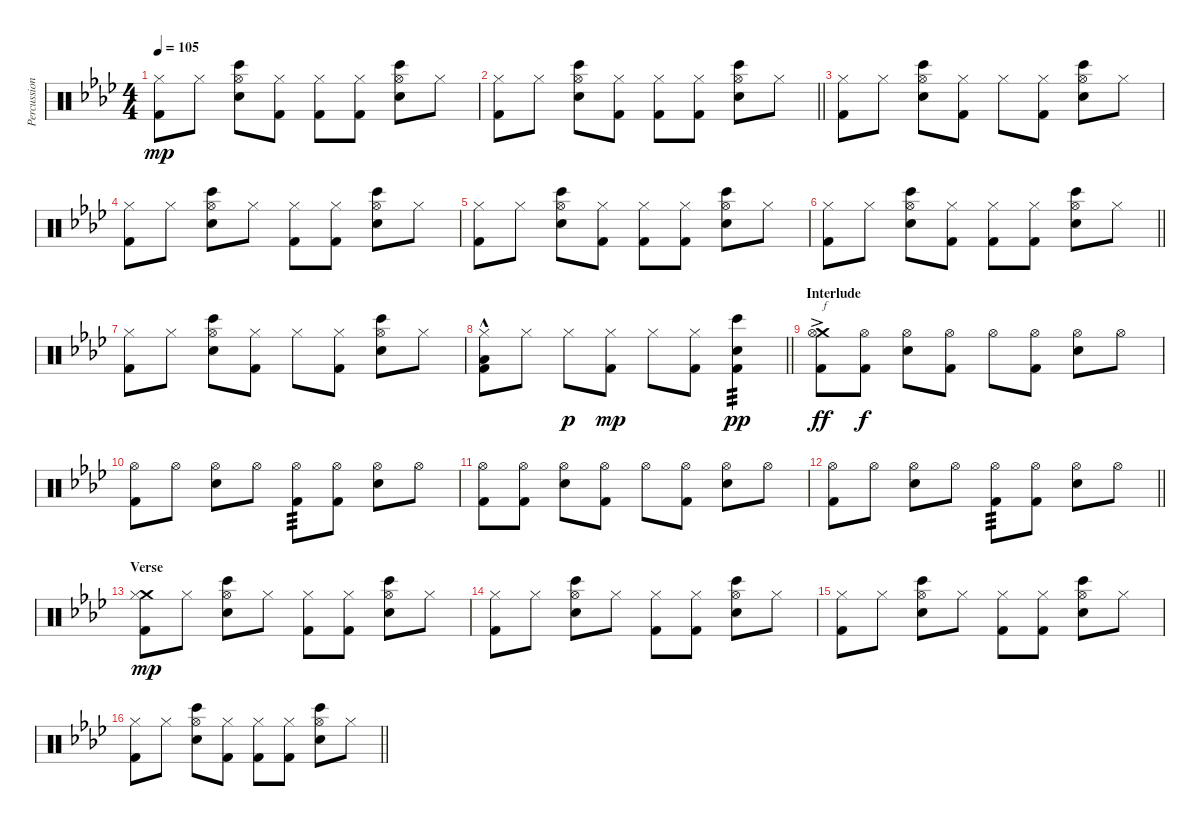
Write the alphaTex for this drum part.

\track ("Percussion" "Percussion") {instrument percussion}
\staff {score}
\articulation defaults
\ts (4 4)
\tempo 105
\clef neutral
\ks fminor
("Hi-Hat (closed)" "Kick (hit) 2").8{dy mp} "Hi-Hat (closed)".8 ("Hi-Hat (open)" "Snare (hit) 2" "Bongo High (hit)").8 ("Hi-Hat (closed)" "Kick (hit) 2").8 ("Hi-Hat (closed)" "Kick (hit) 2").8 ("Hi-Hat (closed)" "Kick (hit) 2").8 ("Hi-Hat (open)" "Snare (hit) 2" "Bongo High (hit)").8 "Hi-Hat (closed)".8 |
\barLineRight lightlight
("Hi-Hat (closed)" "Kick (hit) 2").8 "Hi-Hat (closed)".8 ("Hi-Hat (open)" "Snare (hit) 2" "Bongo High (hit)").8 ("Hi-Hat (closed)" "Kick (hit) 2").8 ("Hi-Hat (closed)" "Kick (hit) 2").8 ("Hi-Hat (closed)" "Kick (hit) 2").8 ("Hi-Hat (open)" "Snare (hit) 2" "Bongo High (hit)").8 "Hi-Hat (closed)".8 |
\section ("" "")
("Hi-Hat (closed)" "Kick (hit) 2").8 "Hi-Hat (closed)".8 ("Hi-Hat (open)" "Snare (hit) 2" "Bongo High (hit)").8 ("Hi-Hat (closed)" "Kick (hit) 2").8 "Hi-Hat (closed)".8 ("Hi-Hat (closed)" "Kick (hit) 2").8 ("Hi-Hat (open)" "Snare (hit) 2" "Bongo High (hit)").8 "Hi-Hat (closed)".8 |
("Hi-Hat (closed)" "Kick (hit) 2").8 "Hi-Hat (closed)".8 ("Hi-Hat (open)" "Snare (hit) 2" "Bongo High (hit)").8 "Hi-Hat (closed)".8 ("Hi-Hat (closed)" "Kick (hit) 2").8 ("Hi-Hat (closed)" "Kick (hit) 2").8 ("Hi-Hat (open)" "Snare (hit) 2" "Bongo High (hit)").8 "Hi-Hat (closed)".8 |
("Hi-Hat (closed)" "Kick (hit) 2").8 "Hi-Hat (closed)".8 ("Hi-Hat (open)" "Snare (hit) 2" "Bongo High (hit)").8 ("Hi-Hat (closed)" "Kick (hit) 2").8 ("Hi-Hat (closed)" "Kick (hit) 2").8 ("Hi-Hat (closed)" "Kick (hit) 2").8 ("Hi-Hat (open)" "Snare (hit) 2" "Bongo High (hit)").8 "Hi-Hat (closed)".8 |
\barLineRight lightlight
("Hi-Hat (closed)" "Kick (hit) 2").8 "Hi-Hat (closed)".8 ("Hi-Hat (open)" "Snare (hit) 2" "Bongo High (hit)").8 ("Hi-Hat (closed)" "Kick (hit) 2").8 ("Hi-Hat (closed)" "Kick (hit) 2").8 ("Hi-Hat (closed)" "Kick (hit) 2").8 ("Hi-Hat (open)" "Snare (hit) 2" "Bongo High (hit)").8 "Hi-Hat (closed)".8 |
\section ("" "")
("Hi-Hat (closed)" "Kick (hit) 2").8 "Hi-Hat (closed)".8 ("Hi-Hat (open)" "Snare (hit) 2" "Bongo High (hit)").8 ("Hi-Hat (closed)" "Kick (hit) 2").8 "Hi-Hat (closed)".8 ("Hi-Hat (closed)" "Kick (hit) 2").8 ("Hi-Hat (open)" "Snare (hit) 2" "Bongo High (hit)").8 "Hi-Hat (closed)".8 |
\barLineRight lightlight
("Hi-Hat (closed)" "Low Floor Tom (hit)"{hac} "Kick (hit) 2").8 "Hi-Hat (closed)".8 "Hi-Hat (closed)".8{dy p} ("Hi-Hat (closed)" "Kick (hit) 2").8{dy mp} "Hi-Hat (closed)".8 ("Hi-Hat (closed)" "Kick (hit) 2").8 ("Snare (hit) 2" "Bongo High (hit)" "Kick (hit) 2").4{tp 3 dy pp} |
\section ("" "Interlude")
("Crash medium (hit)"{ac} "Hi-Hat (open)"{ac} "Kick (hit) 2"{ac}).8{txt "f" dy ff} ("Hi-Hat (open)" "Kick (hit) 2").8{dy f} ("Hi-Hat (open)" "Electric Snare (hit)").8 ("Hi-Hat (open)" "Kick (hit) 2").8 "Hi-Hat (open)".8 ("Hi-Hat (open)" "Kick (hit) 2").8 ("Hi-Hat (open)" "Electric Snare (hit)").8 "Hi-Hat (open)".8 |
("Hi-Hat (open)" "Kick (hit) 2").8 "Hi-Hat (open)".8 ("Hi-Hat (open)" "Electric Snare (hit)").8 "Hi-Hat (open)".8 ("Hi-Hat (open)" "Kick (hit) 2").8{tp 3} ("Hi-Hat (open)" "Kick (hit) 2").8 ("Hi-Hat (open)" "Electric Snare (hit)").8 "Hi-Hat (open)".8 |
("Hi-Hat (open)" "Kick (hit) 2").8 ("Hi-Hat (open)" "Kick (hit) 2").8 ("Hi-Hat (open)" "Electric Snare (hit)").8 ("Hi-Hat (open)" "Kick (hit) 2").8 "Hi-Hat (open)".8 ("Hi-Hat (open)" "Kick (hit) 2").8 ("Hi-Hat (open)" "Electric Snare (hit)").8 "Hi-Hat (open)".8 |
\barLineRight lightlight
("Hi-Hat (open)" "Kick (hit) 2").8 "Hi-Hat (open)".8 ("Hi-Hat (open)" "Electric Snare (hit)").8 "Hi-Hat (open)".8 ("Hi-Hat (open)" "Kick (hit) 2").8{tp 3} ("Hi-Hat (open)" "Kick (hit) 2").8 ("Hi-Hat (open)" "Electric Snare (hit)").8 "Hi-Hat (open)".8 |
\section ("" "Verse")
("Crash medium (hit)" "Hi-Hat (closed)" "Kick (hit) 2").8{dy mp} "Hi-Hat (closed)".8 ("Hi-Hat (open)" "Snare (hit) 2" "Bongo High (hit)").8 "Hi-Hat (closed)".8 ("Hi-Hat (closed)" "Kick (hit) 2").8 ("Hi-Hat (closed)" "Kick (hit) 2").8 ("Hi-Hat (open)" "Snare (hit) 2" "Bongo High (hit)").8 "Hi-Hat (closed)".8 |
("Hi-Hat (closed)" "Kick (hit) 2").8 "Hi-Hat (closed)".8 ("Hi-Hat (open)" "Snare (hit) 2" "Bongo High (hit)").8 "Hi-Hat (closed)".8 ("Hi-Hat (closed)" "Kick (hit) 2").8 ("Hi-Hat (closed)" "Kick (hit) 2").8 ("Hi-Hat (open)" "Snare (hit) 2" "Bongo High (hit)").8 "Hi-Hat (closed)".8 |
("Hi-Hat (closed)" "Kick (hit) 2").8 "Hi-Hat (closed)".8 ("Hi-Hat (open)" "Snare (hit) 2" "Bongo High (hit)").8 "Hi-Hat (closed)".8 ("Hi-Hat (closed)" "Kick (hit) 2").8 ("Hi-Hat (closed)" "Kick (hit) 2").8 ("Hi-Hat (open)" "Snare (hit) 2" "Bongo High (hit)").8 "Hi-Hat (closed)".8 |
\barLineRight lightlight
("Hi-Hat (closed)" "Kick (hit) 2").8 "Hi-Hat (closed)".8 ("Hi-Hat (open)" "Snare (hit) 2" "Bongo High (hit)").8 ("Hi-Hat (closed)" "Kick (hit) 2").8 ("Hi-Hat (closed)" "Kick (hit) 2").8 ("Hi-Hat (closed)" "Kick (hit) 2").8 ("Hi-Hat (open)" "Snare (hit) 2" "Bongo High (hit)").8 "Hi-Hat (closed)".8
